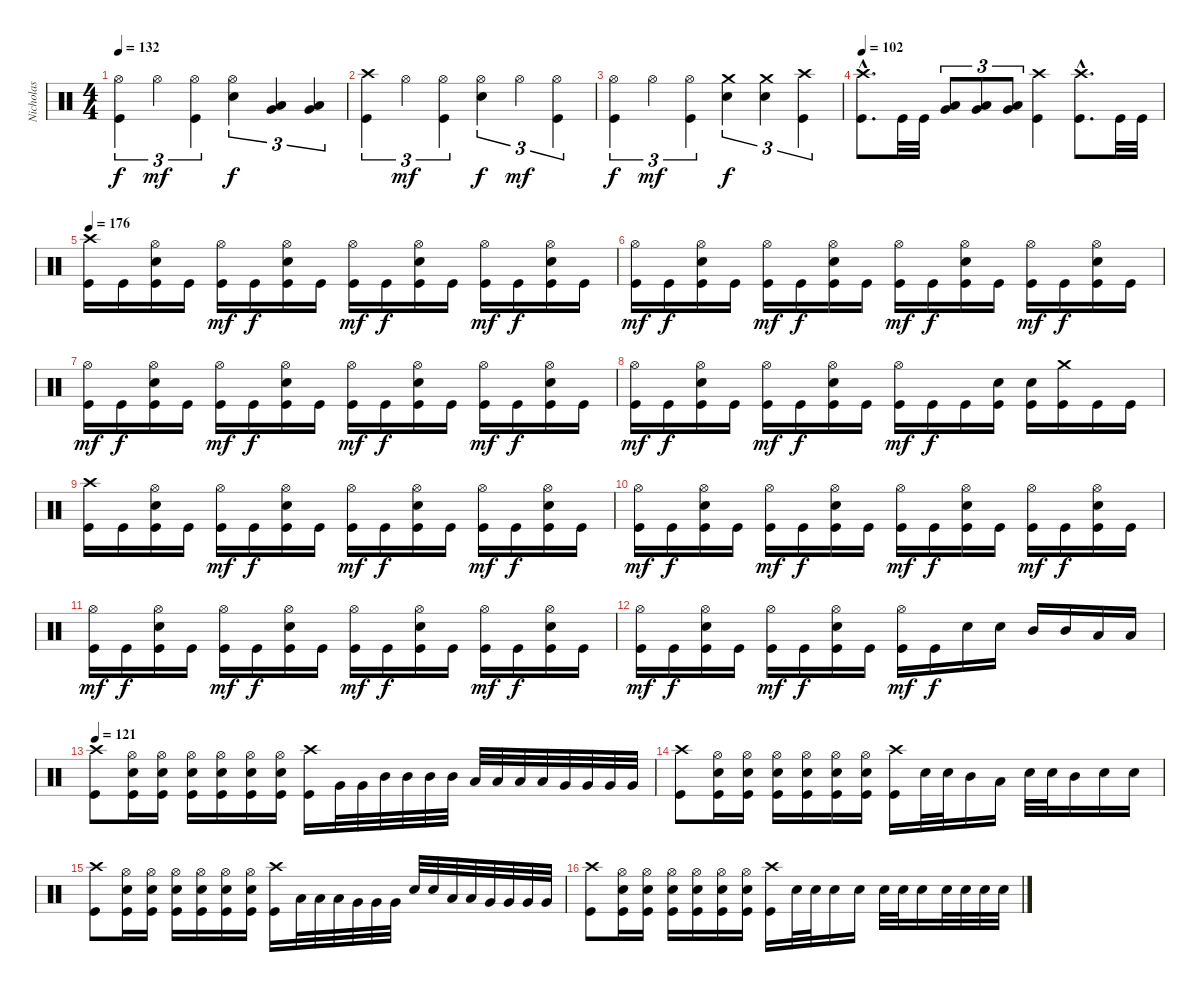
\track ("Nicholas" "Nicholas") {instrument percussion}
\staff {score}
\articulation defaults
\ts (4 4)
\tempo 132
\clef neutral
\ks c
("Hi-Hat (open)" "Kick (hit)").4{tu (3 2) dy f} "Hi-Hat (open)".4{tu (3 2) dy mf} ("Hi-Hat (open)" "Kick (hit)").4{tu (3 2)} ("Hi-Hat (open)" "Electric Snare (hit)").4{tu (3 2) dy f} ("Low Tom (hit)" "Very Low Tom (hit)").4{tu (3 2) bu 60} ("Low Tom (hit)" "Very Low Tom (hit)").4{tu (3 2) bu 60} |
("Crash high (hit)" "Kick (hit)").4{tu (3 2)} "Hi-Hat (open)".4{tu (3 2) dy mf} ("Hi-Hat (open)" "Kick (hit)").4{tu (3 2)} ("Hi-Hat (open)" "Electric Snare (hit)").4{tu (3 2) dy f} "Hi-Hat (open)".4{tu (3 2) dy mf} ("Hi-Hat (open)" "Kick (hit)").4{tu (3 2)} |
("Hi-Hat (open)" "Kick (hit)").4{tu (3 2) dy f} "Hi-Hat (open)".4{tu (3 2) dy mf} ("Hi-Hat (open)" "Kick (hit)").4{tu (3 2)} ("Crash medium (hit)" "Electric Snare (hit)").4{tu (3 2) dy f} ("Crash medium (hit)" "Electric Snare (hit)").4{tu (3 2)} ("Crash high (hit)" "Kick (hit)").4{tu (3 2)} |
\tempo 102
("Crash high (hit)"{hac} "Kick (hit)"{hac}).8{d} "Kick (hit)".32 "Kick (hit)".32 ("Low Tom (hit)" "Very Low Tom (hit)").8{tu (3 2) bd 60} ("Low Tom (hit)" "Very Low Tom (hit)").8{tu (3 2) bd 60} ("Low Tom (hit)" "Very Low Tom (hit)").8{tu (3 2) bd 60} ("Crash high (hit)" "Kick (hit)").4 ("Crash high (hit)"{hac} "Kick (hit)"{hac}).8{d} "Kick (hit)".32 "Kick (hit)".32 |
\tempo 176
("Crash high (hit)" "Kick (hit)").16 "Kick (hit)".16 ("Hi-Hat (open)" "Electric Snare (hit)" "Kick (hit)").16 "Kick (hit)".16 ("Hi-Hat (open)" "Kick (hit)").16{dy mf} "Kick (hit)".16{dy f} ("Hi-Hat (open)" "Electric Snare (hit)" "Kick (hit)").16 "Kick (hit)".16 ("Hi-Hat (open)" "Kick (hit)").16{dy mf} "Kick (hit)".16{dy f} ("Hi-Hat (open)" "Electric Snare (hit)" "Kick (hit)").16 "Kick (hit)".16 ("Hi-Hat (open)" "Kick (hit)").16{dy mf} "Kick (hit)".16{dy f} ("Hi-Hat (open)" "Electric Snare (hit)" "Kick (hit)").16 "Kick (hit)".16 |
("Hi-Hat (open)" "Kick (hit)").16{dy mf} "Kick (hit)".16{dy f} ("Hi-Hat (open)" "Electric Snare (hit)" "Kick (hit)").16 "Kick (hit)".16 ("Hi-Hat (open)" "Kick (hit)").16{dy mf} "Kick (hit)".16{dy f} ("Hi-Hat (open)" "Electric Snare (hit)" "Kick (hit)").16 "Kick (hit)".16 ("Hi-Hat (open)" "Kick (hit)").16{dy mf} "Kick (hit)".16{dy f} ("Hi-Hat (open)" "Electric Snare (hit)" "Kick (hit)").16 "Kick (hit)".16 ("Hi-Hat (open)" "Kick (hit)").16{dy mf} "Kick (hit)".16{dy f} ("Hi-Hat (open)" "Electric Snare (hit)" "Kick (hit)").16 "Kick (hit)".16 |
("Hi-Hat (open)" "Kick (hit)").16{dy mf} "Kick (hit)".16{dy f} ("Hi-Hat (open)" "Electric Snare (hit)" "Kick (hit)").16 "Kick (hit)".16 ("Hi-Hat (open)" "Kick (hit)").16{dy mf} "Kick (hit)".16{dy f} ("Hi-Hat (open)" "Electric Snare (hit)" "Kick (hit)").16 "Kick (hit)".16 ("Hi-Hat (open)" "Kick (hit)").16{dy mf} "Kick (hit)".16{dy f} ("Hi-Hat (open)" "Electric Snare (hit)" "Kick (hit)").16 "Kick (hit)".16 ("Hi-Hat (open)" "Kick (hit)").16{dy mf} "Kick (hit)".16{dy f} ("Hi-Hat (open)" "Electric Snare (hit)" "Kick (hit)").16 "Kick (hit)".16 |
("Hi-Hat (open)" "Kick (hit)").16{dy mf} "Kick (hit)".16{dy f} ("Hi-Hat (open)" "Electric Snare (hit)" "Kick (hit)").16 "Kick (hit)".16 ("Hi-Hat (open)" "Kick (hit)").16{dy mf} "Kick (hit)".16{dy f} ("Hi-Hat (open)" "Electric Snare (hit)" "Kick (hit)").16 "Kick (hit)".16 ("Hi-Hat (open)" "Kick (hit)").16{dy mf} "Kick (hit)".16{dy f} "Kick (hit)".16 ("Electric Snare (hit)" "Kick (hit)").16 ("Electric Snare (hit)" "Kick (hit)").16 ("Crash medium (hit)" "Kick (hit)").16 "Kick (hit)".16 "Kick (hit)".16 |
("Crash high (hit)" "Kick (hit)").16 "Kick (hit)".16 ("Hi-Hat (open)" "Electric Snare (hit)" "Kick (hit)").16 "Kick (hit)".16 ("Hi-Hat (open)" "Kick (hit)").16{dy mf} "Kick (hit)".16{dy f} ("Hi-Hat (open)" "Electric Snare (hit)" "Kick (hit)").16 "Kick (hit)".16 ("Hi-Hat (open)" "Kick (hit)").16{dy mf} "Kick (hit)".16{dy f} ("Hi-Hat (open)" "Electric Snare (hit)" "Kick (hit)").16 "Kick (hit)".16 ("Hi-Hat (open)" "Kick (hit)").16{dy mf} "Kick (hit)".16{dy f} ("Hi-Hat (open)" "Electric Snare (hit)" "Kick (hit)").16 "Kick (hit)".16 |
("Hi-Hat (open)" "Kick (hit)").16{dy mf} "Kick (hit)".16{dy f} ("Hi-Hat (open)" "Electric Snare (hit)" "Kick (hit)").16 "Kick (hit)".16 ("Hi-Hat (open)" "Kick (hit)").16{dy mf} "Kick (hit)".16{dy f} ("Hi-Hat (open)" "Electric Snare (hit)" "Kick (hit)").16 "Kick (hit)".16 ("Hi-Hat (open)" "Kick (hit)").16{dy mf} "Kick (hit)".16{dy f} ("Hi-Hat (open)" "Electric Snare (hit)" "Kick (hit)").16 "Kick (hit)".16 ("Hi-Hat (open)" "Kick (hit)").16{dy mf} "Kick (hit)".16{dy f} ("Hi-Hat (open)" "Electric Snare (hit)" "Kick (hit)").16 "Kick (hit)".16 |
("Hi-Hat (open)" "Kick (hit)").16{dy mf} "Kick (hit)".16{dy f} ("Hi-Hat (open)" "Electric Snare (hit)" "Kick (hit)").16 "Kick (hit)".16 ("Hi-Hat (open)" "Kick (hit)").16{dy mf} "Kick (hit)".16{dy f} ("Hi-Hat (open)" "Electric Snare (hit)" "Kick (hit)").16 "Kick (hit)".16 ("Hi-Hat (open)" "Kick (hit)").16{dy mf} "Kick (hit)".16{dy f} ("Hi-Hat (open)" "Electric Snare (hit)" "Kick (hit)").16 "Kick (hit)".16 ("Hi-Hat (open)" "Kick (hit)").16{dy mf} "Kick (hit)".16{dy f} ("Hi-Hat (open)" "Electric Snare (hit)" "Kick (hit)").16 "Kick (hit)".16 |
("Hi-Hat (open)" "Kick (hit)").16{dy mf} "Kick (hit)".16{dy f} ("Hi-Hat (open)" "Electric Snare (hit)" "Kick (hit)").16 "Kick (hit)".16 ("Hi-Hat (open)" "Kick (hit)").16{dy mf} "Kick (hit)".16{dy f} ("Hi-Hat (open)" "Electric Snare (hit)" "Kick (hit)").16 "Kick (hit)".16 ("Hi-Hat (open)" "Kick (hit)").16{dy mf} "Kick (hit)".16{dy f} "Electric Snare (hit)".16 "Electric Snare (hit)".16 "Mid Tom (hit)".16 "Mid Tom (hit)".16 "Low Tom (hit)".16 "Low Tom (hit)".16 |
\tempo 121
("Crash high (hit)" "Kick (hit)").8 ("Hi-Hat (open)" "Electric Snare (hit)" "Kick (hit)").16 ("Hi-Hat (open)" "Electric Snare (hit)" "Kick (hit)").16 ("Hi-Hat (open)" "Electric Snare (hit)" "Kick (hit)").16 ("Hi-Hat (open)" "Electric Snare (hit)" "Kick (hit)").16 ("Hi-Hat (open)" "Electric Snare (hit)" "Kick (hit)").16 ("Hi-Hat (open)" "Electric Snare (hit)" "Kick (hit)").16 ("Crash high (hit)" "Kick (hit)").16 "Very Low Tom (hit)".32 "Very Low Tom (hit)".32 "Mid Tom (hit)".32 "Mid Tom (hit)".32 "Mid Tom (hit)".32 "Mid Tom (hit)".32 "Low Tom (hit)".32 "Low Tom (hit)".32 "Low Tom (hit)".32 "Low Tom (hit)".32 "Very Low Tom (hit)".32 "Very Low Tom (hit)".32 "Very Low Tom (hit)".32 "Very Low Tom (hit)".32 |
("Crash high (hit)" "Kick (hit)").8 ("Hi-Hat (open)" "Electric Snare (hit)" "Kick (hit)").16 ("Hi-Hat (open)" "Electric Snare (hit)" "Kick (hit)").16 ("Hi-Hat (open)" "Electric Snare (hit)" "Kick (hit)").16 ("Hi-Hat (open)" "Electric Snare (hit)" "Kick (hit)").16 ("Hi-Hat (open)" "Electric Snare (hit)" "Kick (hit)").16 ("Hi-Hat (open)" "Electric Snare (hit)" "Kick (hit)").16 ("Crash high (hit)" "Kick (hit)").16 "Electric Snare (hit)".32 "Electric Snare (hit)".32 "Mid Tom (hit)".16 "Low Tom (hit)".16 "Electric Snare (hit)".32 "Electric Snare (hit)".32 "Mid Tom (hit)".16 "Electric Snare (hit)".16 "Electric Snare (hit)".16 |
("Crash high (hit)" "Kick (hit)").8 ("Hi-Hat (open)" "Electric Snare (hit)" "Kick (hit)").16 ("Hi-Hat (open)" "Electric Snare (hit)" "Kick (hit)").16 ("Hi-Hat (open)" "Electric Snare (hit)" "Kick (hit)").16 ("Hi-Hat (open)" "Electric Snare (hit)" "Kick (hit)").16 ("Hi-Hat (open)" "Electric Snare (hit)" "Kick (hit)").16 ("Hi-Hat (open)" "Electric Snare (hit)" "Kick (hit)").16 ("Crash high (hit)" "Kick (hit)").16 "Low Tom (hit)".32 "Low Tom (hit)".32 "Low Tom (hit)".32 "Very Low Tom (hit)".32 "Very Low Tom (hit)".32 "Very Low Tom (hit)".32 "Electric Snare (hit)".32 "Electric Snare (hit)".32 "Low Tom (hit)".32 "Low Tom (hit)".32 "Very Low Tom (hit)".32 "Very Low Tom (hit)".32 "Very Low Tom (hit)".32 "Very Low Tom (hit)".32 |
("Crash high (hit)" "Kick (hit)").8 ("Hi-Hat (open)" "Electric Snare (hit)" "Kick (hit)").16 ("Hi-Hat (open)" "Electric Snare (hit)" "Kick (hit)").16 ("Hi-Hat (open)" "Electric Snare (hit)" "Kick (hit)").16 ("Hi-Hat (open)" "Electric Snare (hit)" "Kick (hit)").16 ("Hi-Hat (open)" "Electric Snare (hit)" "Kick (hit)").16 ("Hi-Hat (open)" "Electric Snare (hit)" "Kick (hit)").16 ("Crash high (hit)" "Kick (hit)").16 "Electric Snare (hit)".32 "Electric Snare (hit)".32 "Electric Snare (hit)".16 "Electric Snare (hit)".16 "Electric Snare (hit)".32 "Electric Snare (hit)".32 "Electric Snare (hit)".16 "Electric Snare (hit)".32 "Electric Snare (hit)".32 "Electric Snare (hit)".32 "Electric Snare (hit)".32
